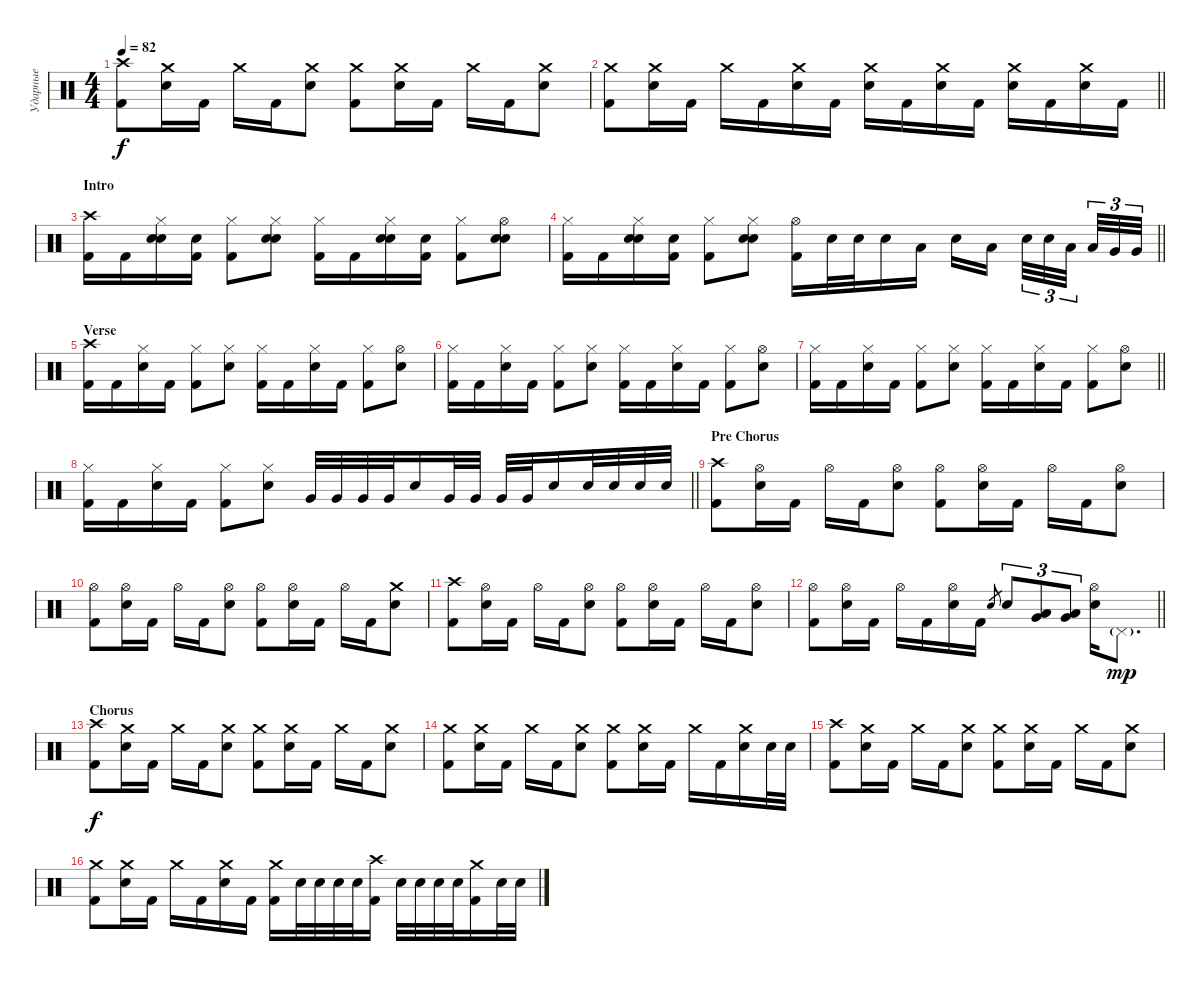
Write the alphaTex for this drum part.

\track ("Ударные" "Ударные") {instrument percussion}
\staff {score}
\articulation defaults
\ts (4 4)
\tempo 82
\clef neutral
\ks c
("Crash high (hit)" "Kick (hit) 2").8{dy f} ("Crash medium (hit)" "Snare (hit) 2").16 "Kick (hit) 2".16 "Crash medium (hit)".16 "Kick (hit) 2".16 ("Crash medium (hit)" "Snare (hit) 2").8 ("Crash medium (hit)" "Kick (hit) 2").8 ("Crash medium (hit)" "Snare (hit) 2").16 "Kick (hit) 2".16 "Crash medium (hit)".16 "Kick (hit) 2".16 ("Crash medium (hit)" "Snare (hit) 2").8 |
\barLineRight lightlight
("Crash medium (hit)" "Kick (hit) 2").8 ("Crash medium (hit)" "Snare (hit) 2").16 "Kick (hit) 2".16 "Crash medium (hit)".16 "Kick (hit) 2".16 ("Crash medium (hit)" "Snare (hit) 2").16 "Kick (hit) 2".16 ("Crash medium (hit)" "Snare (hit) 2").16 "Kick (hit) 2".16 ("Crash medium (hit)" "Snare (hit) 2").16 "Kick (hit) 2".16 ("Crash medium (hit)" "Snare (hit) 2").16 "Kick (hit) 2".16 ("Crash medium (hit)" "Snare (hit) 2").16 "Kick (hit) 2".16 |
\section ("" "Intro")
("Crash high (hit)" "Kick (hit) 2").16 "Kick (hit) 2".16 ("Hand Clap (hit)" "Hi-Hat (closed)" "Snare (hit) 2").16 ("Hand Clap (hit)" "Kick (hit) 2").16 ("Hi-Hat (closed)" "Kick (hit) 2").8 ("Hand Clap (hit)" "Hi-Hat (closed)" "Snare (hit) 2").8 ("Hi-Hat (closed)" "Kick (hit) 2").16 "Kick (hit) 2".16 ("Hand Clap (hit)" "Hi-Hat (closed)" "Snare (hit) 2").16 ("Hand Clap (hit)" "Kick (hit) 2").16 ("Hi-Hat (closed)" "Kick (hit) 2").8 ("Hand Clap (hit)" "Hi-Hat (open)" "Snare (hit) 2").8 |
\barLineRight lightlight
("Hi-Hat (closed)" "Kick (hit) 2").16 "Kick (hit) 2".16 ("Hand Clap (hit)" "Hi-Hat (closed)" "Snare (hit) 2").16 ("Hand Clap (hit)" "Kick (hit) 2").16 ("Hi-Hat (closed)" "Kick (hit) 2").8 ("Hand Clap (hit)" "Hi-Hat (closed)" "Snare (hit) 2").8 ("Hi-Hat (open)" "Kick (hit) 2").16 "Snare (hit) 2".32 "Snare (hit) 2".32 "Snare (hit) 2".16 "Low Tom (hit)".16 "Snare (hit) 2".16 "Low Tom (hit)".16{beam splitsecondary} "Snare (hit) 2".32{tu (3 2)} "Snare (hit) 2".32{tu (3 2)} "Low Tom (hit)".32{tu (3 2) beam splitsecondary} "Low Tom (hit)".32{tu (3 2)} "Very Low Tom (hit)".32{tu (3 2)} "Very Low Tom (hit)".32{tu (3 2)} |
\section ("" "Verse")
("Crash high (hit)" "Kick (hit) 2").16 "Kick (hit) 2".16 ("Hi-Hat (closed)" "Snare (hit) 2").16 "Kick (hit) 2".16 ("Hi-Hat (closed)" "Kick (hit) 2").8 ("Hi-Hat (closed)" "Snare (hit) 2").8 ("Hi-Hat (closed)" "Kick (hit) 2").16 "Kick (hit) 2".16 ("Hi-Hat (closed)" "Snare (hit) 2").16 "Kick (hit) 2".16 ("Hi-Hat (closed)" "Kick (hit) 2").8 ("Hi-Hat (open)" "Snare (hit) 2").8 |
("Hi-Hat (closed)" "Kick (hit) 2").16 "Kick (hit) 2".16 ("Hi-Hat (closed)" "Snare (hit) 2").16 "Kick (hit) 2".16 ("Hi-Hat (closed)" "Kick (hit) 2").8 ("Hi-Hat (closed)" "Snare (hit) 2").8 ("Hi-Hat (closed)" "Kick (hit) 2").16 "Kick (hit) 2".16 ("Hi-Hat (closed)" "Snare (hit) 2").16 "Kick (hit) 2".16 ("Hi-Hat (closed)" "Kick (hit) 2").8 ("Hi-Hat (open)" "Snare (hit) 2").8 |
\barLineRight lightlight
("Hi-Hat (closed)" "Kick (hit) 2").16 "Kick (hit) 2".16 ("Hi-Hat (closed)" "Snare (hit) 2").16 "Kick (hit) 2".16 ("Hi-Hat (closed)" "Kick (hit) 2").8 ("Hi-Hat (closed)" "Snare (hit) 2").8 ("Hi-Hat (closed)" "Kick (hit) 2").16 "Kick (hit) 2".16 ("Hi-Hat (closed)" "Snare (hit) 2").16 "Kick (hit) 2".16 ("Hi-Hat (closed)" "Kick (hit) 2").8 ("Hi-Hat (open)" "Snare (hit) 2").8 |
\barLineRight lightlight
("Hi-Hat (closed)" "Kick (hit) 2").16 "Kick (hit) 2".16 ("Hi-Hat (closed)" "Snare (hit) 2").16 "Kick (hit) 2".16 ("Hi-Hat (closed)" "Kick (hit) 2").8 ("Hi-Hat (closed)" "Snare (hit) 2").8 "Very Low Tom (hit)".32 "Very Low Tom (hit)".32 "Very Low Tom (hit)".32 "Very Low Tom (hit)".32 "Snare (hit) 2".16 "Very Low Tom (hit)".32 "Very Low Tom (hit)".32 "Very Low Tom (hit)".32 "Very Low Tom (hit)".32 "Snare (hit) 2".16 "Snare (hit) 2".32 "Snare (hit) 2".32 "Snare (hit) 2".32 "Snare (hit) 2".32 |
\section ("" "Pre Chorus")
("Crash high (hit)" "Kick (hit) 2").8 ("Hi-Hat (open)" "Snare (hit) 2").16 "Kick (hit) 2".16 "Hi-Hat (open)".16 "Kick (hit) 2".16 ("Hi-Hat (open)" "Snare (hit) 2").8 ("Hi-Hat (open)" "Kick (hit) 2").8 ("Hi-Hat (open)" "Snare (hit) 2").16 "Kick (hit) 2".16 "Hi-Hat (open)".16 "Kick (hit) 2".16 ("Hi-Hat (open)" "Snare (hit) 2").8 |
("Hi-Hat (open)" "Kick (hit) 2").8 ("Hi-Hat (open)" "Snare (hit) 2").16 "Kick (hit) 2".16 "Hi-Hat (open)".16 "Kick (hit) 2".16 ("Hi-Hat (open)" "Snare (hit) 2").8 ("Hi-Hat (open)" "Kick (hit) 2").8 ("Hi-Hat (open)" "Snare (hit) 2").16 "Kick (hit) 2".16 "Hi-Hat (open)".16 "Kick (hit) 2".16 ("Crash medium (hit)" "Snare (hit) 2").8 |
("Crash high (hit)" "Kick (hit) 2").8 ("Hi-Hat (open)" "Snare (hit) 2").16 "Kick (hit) 2".16 "Hi-Hat (open)".16 "Kick (hit) 2".16 ("Hi-Hat (open)" "Snare (hit) 2").8 ("Hi-Hat (open)" "Kick (hit) 2").8 ("Hi-Hat (open)" "Snare (hit) 2").16 "Kick (hit) 2".16 "Hi-Hat (open)".16 "Kick (hit) 2".16 ("Hi-Hat (open)" "Snare (hit) 2").8 |
\barLineRight lightlight
("Hi-Hat (open)" "Kick (hit) 2").8 ("Hi-Hat (open)" "Snare (hit) 2").16 "Kick (hit) 2".16 "Hi-Hat (open)".16 "Kick (hit) 2".16 ("Hi-Hat (open)" "Snare (hit) 2").16 "Kick (hit) 2".16 "Snare (hit) 2".8{gr} "Snare (hit) 2".8{tu (3 2)} ("Low Tom (hit)" "Very Low Tom (hit)").8{tu (3 2)} ("Low Tom (hit)" "Very Low Tom (hit)").8{tu (3 2)} ("Hi-Hat (open)" "Snare (hit) 2").16 "Pedal Hi-Hat (hit)"{g}.8{d dy mp} |
\section ("" "Chorus")
("Crash high (hit)" "Kick (hit) 2").8{dy f} ("Crash medium (hit)" "Snare (hit) 2").16 "Kick (hit) 2".16 "Crash medium (hit)".16 "Kick (hit) 2".16 ("Crash medium (hit)" "Snare (hit) 2").8 ("Crash medium (hit)" "Kick (hit) 2").8 ("Crash medium (hit)" "Snare (hit) 2").16 "Kick (hit) 2".16 "Crash medium (hit)".16 "Kick (hit) 2".16 ("Crash medium (hit)" "Snare (hit) 2").8 |
("Crash medium (hit)" "Kick (hit) 2").8 ("Crash medium (hit)" "Snare (hit) 2").16 "Kick (hit) 2".16 "Crash medium (hit)".16 "Kick (hit) 2".16 ("Crash medium (hit)" "Snare (hit) 2").8 ("Crash medium (hit)" "Kick (hit) 2").8 ("Crash medium (hit)" "Snare (hit) 2").16 "Kick (hit) 2".16 "Crash medium (hit)".16 "Kick (hit) 2".16 ("Crash medium (hit)" "Snare (hit) 2").16 "Snare (hit) 2".32 "Snare (hit) 2".32 |
("Crash high (hit)" "Kick (hit) 2").8 ("Crash medium (hit)" "Snare (hit) 2").16 "Kick (hit) 2".16 "Crash medium (hit)".16 "Kick (hit) 2".16 ("Crash medium (hit)" "Snare (hit) 2").8 ("Crash medium (hit)" "Kick (hit) 2").8 ("Crash medium (hit)" "Snare (hit) 2").16 "Kick (hit) 2".16 "Crash medium (hit)".16 "Kick (hit) 2".16 ("Crash medium (hit)" "Snare (hit) 2").8 |
("Crash medium (hit)" "Kick (hit) 2").8 ("Crash medium (hit)" "Snare (hit) 2").16 "Kick (hit) 2".16 "Crash medium (hit)".16 "Kick (hit) 2".16 ("Crash medium (hit)" "Snare (hit) 2").16 "Kick (hit) 2".16 ("Crash medium (hit)" "Kick (hit) 2").16 "Snare (hit) 2".32 "Snare (hit) 2".32 "Snare (hit) 2".32 "Snare (hit) 2".32 ("Crash high (hit)" "Kick (hit) 2").16 "Snare (hit) 2".32 "Snare (hit) 2".32 "Snare (hit) 2".32 "Snare (hit) 2".32 ("Crash medium (hit)" "Kick (hit) 2").16 "Snare (hit) 2".32 "Snare (hit) 2".32
